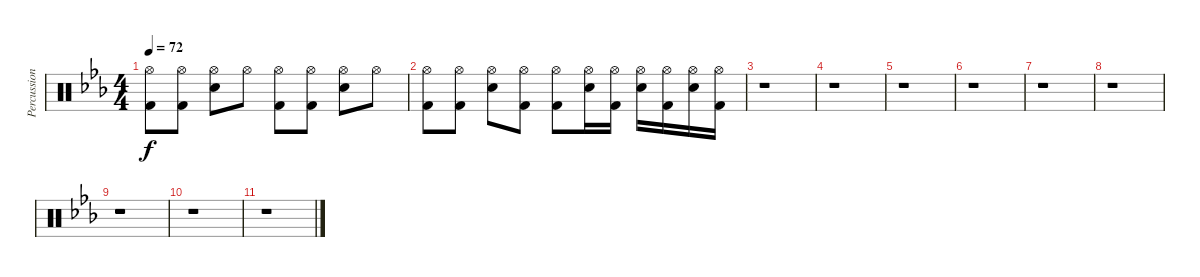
\track ("Percussions" "Percussion") {instrument percussion}
\staff {score}
\articulation defaults
\ts (4 4)
\tempo 72
\clef neutral
\ks eb
("Hi-Hat (open)" "Kick (hit) 2").8{dy f} ("Hi-Hat (open)" "Kick (hit) 2").8 ("Hi-Hat (open)" "Snare (hit) 2").8 "Hi-Hat (open)".8 ("Hi-Hat (open)" "Kick (hit) 2").8 ("Hi-Hat (open)" "Kick (hit) 2").8 ("Hi-Hat (open)" "Snare (hit) 2").8 "Hi-Hat (open)".8 |
("Hi-Hat (open)" "Kick (hit) 2").8 ("Hi-Hat (open)" "Kick (hit) 2").8 ("Hi-Hat (open)" "Snare (hit) 2").8 ("Hi-Hat (open)" "Kick (hit) 2").8 ("Hi-Hat (open)" "Kick (hit) 2").8 ("Hi-Hat (open)" "Snare (hit) 2").16 ("Hi-Hat (open)" "Kick (hit) 2").16 ("Hi-Hat (open)" "Snare (hit) 2").16 ("Hi-Hat (open)" "Kick (hit) 2").16 ("Hi-Hat (open)" "Snare (hit) 2").16 ("Kick (hit) 2" "Hi-Hat (open)").16 |
r.1 |
r.1 |
r.1 |
r.1 |
r.1 |
r.1 |
r.1 |
r.1 |
r.1
